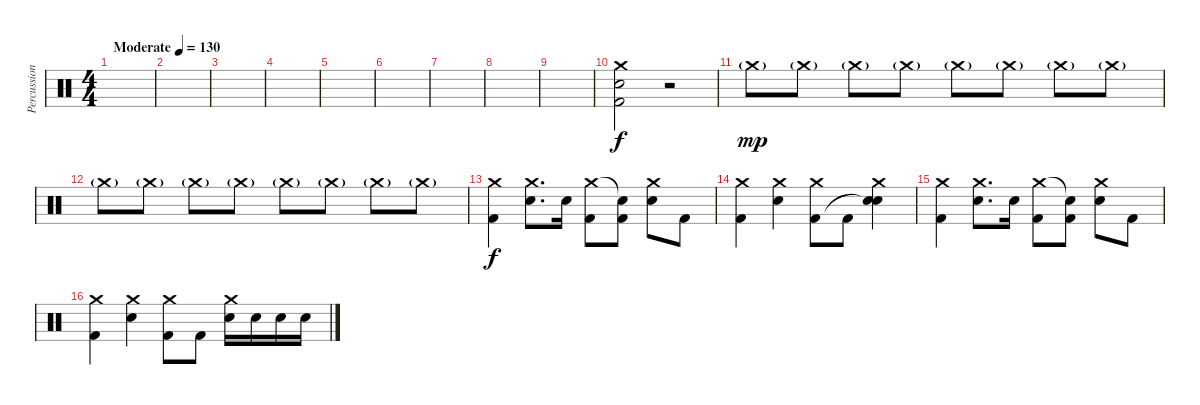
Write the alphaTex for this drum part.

\track ("Percussion" "Percussion") {instrument percussion}
\staff {score}
\articulation defaults
\ts (4 4)
\tempo (130 "Moderate")
\clef neutral
\ks c
|
|
|
|
|
|
|
|
|
("Crash medium (hit)" "Kick (hit) 2" "Snare (hit) 2").2 r.2 |
"Crash medium (hit)"{g}.8{dy mp} "Crash medium (hit)"{g}.8 "Crash medium (hit)"{g}.8 "Crash medium (hit)"{g}.8 "Crash medium (hit)"{g}.8 "Crash medium (hit)"{g}.8 "Crash medium (hit)"{g}.8 "Crash medium (hit)"{g}.8 |
"Crash medium (hit)"{g}.8 "Crash medium (hit)"{g}.8 "Crash medium (hit)"{g}.8 "Crash medium (hit)"{g}.8 "Crash medium (hit)"{g}.8 "Crash medium (hit)"{g}.8 "Crash medium (hit)"{g}.8 "Crash medium (hit)"{g}.8 |
("Crash medium (hit)" "Kick (hit) 2").4{dy f} ("Crash medium (hit)" "Snare (hit) 2").8{d} "Snare (hit) 2".16 ("Crash medium (hit)" "Kick (hit) 2").8 ("Snare (hit)"{t} "Kick (hit) 2").8 ("Crash medium (hit)" "Snare (hit) 2").8 "Kick (hit) 2".8 |
("Crash medium (hit)" "Kick (hit) 2").4 ("Crash medium (hit)" "Snare (hit) 2").4 ("Crash medium (hit)" "Kick (hit) 2").8 "Kick (hit) 2".8 ("Crash medium (hit)" "Snare (hit)"{t} "Snare (hit) 2").4 |
("Crash medium (hit)" "Kick (hit) 2").4 ("Crash medium (hit)" "Snare (hit) 2").8{d} "Snare (hit) 2".16 ("Crash medium (hit)" "Kick (hit) 2").8 ("Snare (hit)"{t} "Kick (hit) 2").8 ("Crash medium (hit)" "Snare (hit) 2").8 "Kick (hit) 2".8 |
("Crash medium (hit)" "Kick (hit) 2").4 ("Crash medium (hit)" "Snare (hit) 2").4 ("Crash medium (hit)" "Kick (hit) 2").8 "Kick (hit) 2".8 ("Crash medium (hit)" "Snare (hit) 2").16 "Snare (hit) 2".16 "Snare (hit) 2".16 "Snare (hit) 2".16
